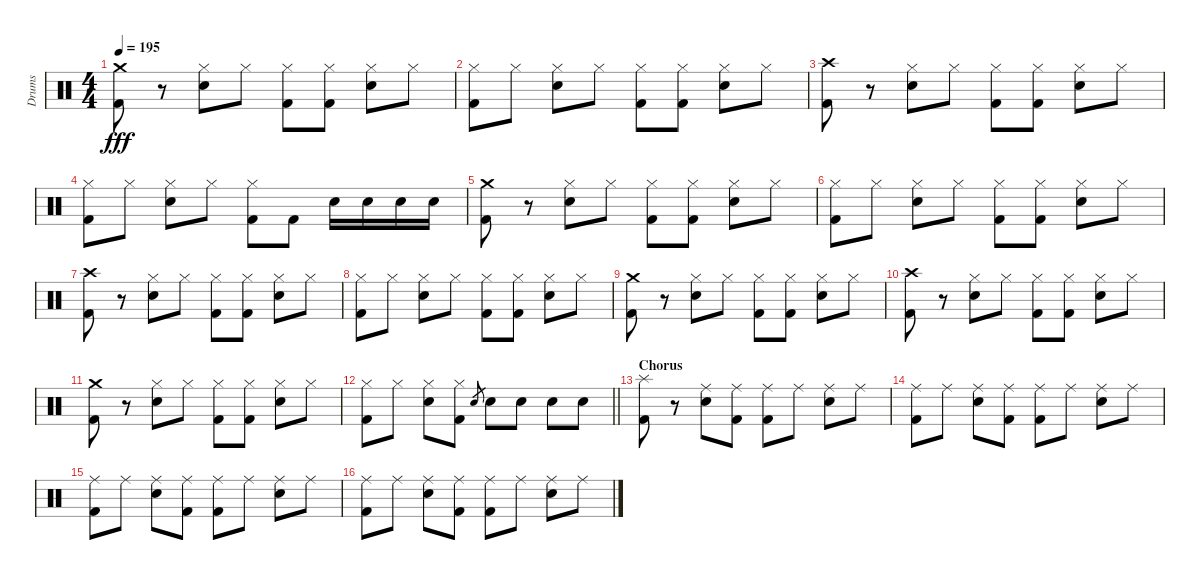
\track ("Drums" "Drums") {instrument percussion}
\staff {score}
\articulation defaults
\ts (4 4)
\tempo 195
\clef neutral
\ks c
("Crash medium (hit)" "Kick (hit) 2").8{dy fff} r.8 ("Hi-Hat (closed)" "Snare (hit) 2").8 "Hi-Hat (closed)".8 ("Hi-Hat (closed)" "Kick (hit) 2").8 ("Hi-Hat (closed)" "Kick (hit) 2").8 ("Hi-Hat (closed)" "Snare (hit) 2").8 "Hi-Hat (closed)".8 |
("Hi-Hat (closed)" "Kick (hit) 2").8 "Hi-Hat (closed)".8 ("Hi-Hat (closed)" "Snare (hit) 2").8 "Hi-Hat (closed)".8 ("Hi-Hat (closed)" "Kick (hit) 2").8 ("Hi-Hat (closed)" "Kick (hit) 2").8 ("Hi-Hat (closed)" "Snare (hit) 2").8 "Hi-Hat (closed)".8 |
("Crash high (hit)" "Kick (hit) 2").8 r.8 ("Hi-Hat (closed)" "Snare (hit) 2").8 "Hi-Hat (closed)".8 ("Hi-Hat (closed)" "Kick (hit) 2").8 ("Hi-Hat (closed)" "Kick (hit) 2").8 ("Hi-Hat (closed)" "Snare (hit) 2").8 "Hi-Hat (closed)".8 |
("Hi-Hat (closed)" "Kick (hit) 2").8 "Hi-Hat (closed)".8 ("Hi-Hat (closed)" "Snare (hit) 2").8 "Hi-Hat (closed)".8 ("Hi-Hat (closed)" "Kick (hit) 2").8 "Kick (hit) 2".8 "Snare (hit) 2".16 "Snare (hit) 2".16 "Snare (hit) 2".16 "Snare (hit) 2".16 |
("Crash medium (hit)" "Kick (hit) 2").8 r.8 ("Hi-Hat (closed)" "Snare (hit) 2").8 "Hi-Hat (closed)".8 ("Hi-Hat (closed)" "Kick (hit) 2").8 ("Hi-Hat (closed)" "Kick (hit) 2").8 ("Hi-Hat (closed)" "Snare (hit) 2").8 "Hi-Hat (closed)".8 |
("Hi-Hat (closed)" "Kick (hit) 2").8 "Hi-Hat (closed)".8 ("Hi-Hat (closed)" "Snare (hit) 2").8 "Hi-Hat (closed)".8 ("Hi-Hat (closed)" "Kick (hit) 2").8 ("Hi-Hat (closed)" "Kick (hit) 2").8 ("Hi-Hat (closed)" "Snare (hit) 2").8 "Hi-Hat (closed)".8 |
("Crash high (hit)" "Kick (hit) 2").8 r.8 ("Hi-Hat (closed)" "Snare (hit) 2").8 "Hi-Hat (closed)".8 ("Hi-Hat (closed)" "Kick (hit) 2").8 ("Hi-Hat (closed)" "Kick (hit) 2").8 ("Hi-Hat (closed)" "Snare (hit) 2").8 "Hi-Hat (closed)".8 |
("Hi-Hat (closed)" "Kick (hit) 2").8 "Hi-Hat (closed)".8 ("Hi-Hat (closed)" "Snare (hit) 2").8 "Hi-Hat (closed)".8 ("Hi-Hat (closed)" "Kick (hit) 2").8 ("Hi-Hat (closed)" "Kick (hit) 2").8 ("Hi-Hat (closed)" "Snare (hit) 2").8 "Hi-Hat (closed)".8 |
("Crash medium (hit)" "Kick (hit) 2").8 r.8 ("Hi-Hat (closed)" "Snare (hit) 2").8 "Hi-Hat (closed)".8 ("Hi-Hat (closed)" "Kick (hit) 2").8 ("Hi-Hat (closed)" "Kick (hit) 2").8 ("Hi-Hat (closed)" "Snare (hit) 2").8 "Hi-Hat (closed)".8 |
("Crash high (hit)" "Kick (hit) 2").8 r.8 ("Hi-Hat (closed)" "Snare (hit) 2").8 "Hi-Hat (closed)".8 ("Hi-Hat (closed)" "Kick (hit) 2").8 ("Hi-Hat (closed)" "Kick (hit) 2").8 ("Hi-Hat (closed)" "Snare (hit) 2").8 "Hi-Hat (closed)".8 |
("Crash medium (hit)" "Kick (hit) 2").8 r.8 ("Hi-Hat (closed)" "Snare (hit) 2").8 "Hi-Hat (closed)".8 ("Hi-Hat (closed)" "Kick (hit) 2").8 ("Hi-Hat (closed)" "Kick (hit) 2").8 ("Hi-Hat (closed)" "Snare (hit) 2").8 "Hi-Hat (closed)".8 |
\barLineRight lightlight
("Hi-Hat (closed)" "Kick (hit) 2").8 "Hi-Hat (closed)".8 ("Hi-Hat (closed)" "Snare (hit) 2").8 ("Hi-Hat (closed)" "Kick (hit) 2").8 "Snare (hit) 2".8{gr} "Snare (hit) 2".8 "Snare (hit) 2".8 "Snare (hit) 2".8 "Snare (hit) 2".8 |
\section ("" "Chorus")
("Splash (hit)" "Kick (hit) 2").8 r.8 ("Ride (middle)" "Snare (hit) 2").8 ("Ride (middle)" "Kick (hit) 2").8 ("Ride (middle)" "Kick (hit) 2").8 "Ride (middle)".8 ("Ride (middle)" "Snare (hit) 2").8 "Ride (middle)".8 |
("Ride (middle)" "Kick (hit) 2").8 "Ride (middle)".8 ("Ride (middle)" "Snare (hit) 2").8 ("Ride (middle)" "Kick (hit) 2").8 ("Ride (middle)" "Kick (hit) 2").8 "Ride (middle)".8 ("Ride (middle)" "Snare (hit) 2").8 "Ride (middle)".8 |
("Ride (middle)" "Kick (hit) 2").8 "Ride (middle)".8 ("Ride (middle)" "Snare (hit) 2").8 ("Ride (middle)" "Kick (hit) 2").8 ("Ride (middle)" "Kick (hit) 2").8 "Ride (middle)".8 ("Ride (middle)" "Snare (hit) 2").8 "Ride (middle)".8 |
("Ride (middle)" "Kick (hit) 2").8 "Ride (middle)".8 ("Ride (middle)" "Snare (hit) 2").8 ("Ride (middle)" "Kick (hit) 2").8 ("Ride (middle)" "Kick (hit) 2").8 "Ride (middle)".8 ("Ride (middle)" "Snare (hit) 2").8 "Ride (middle)".8
